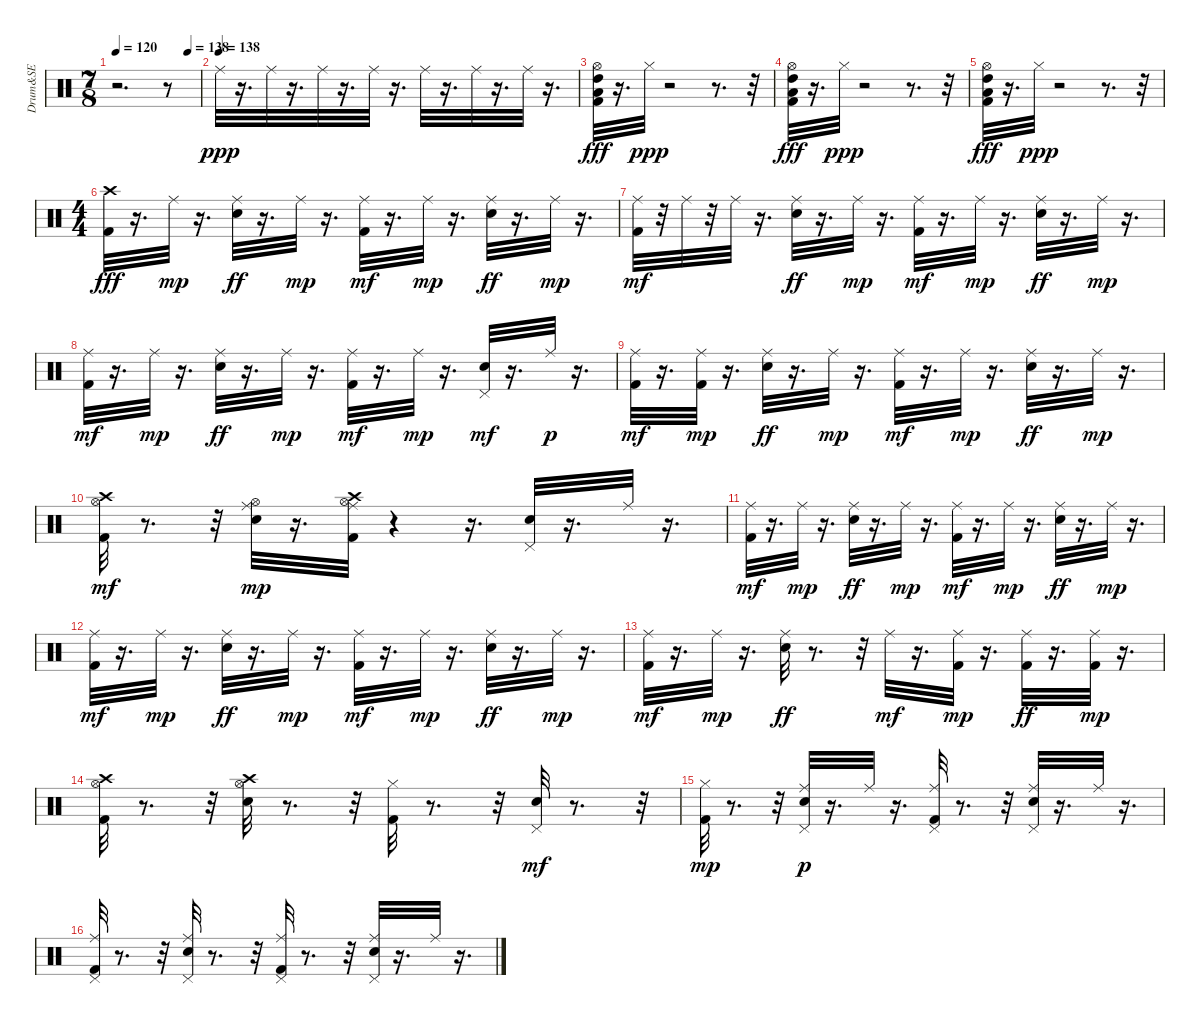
\track ("Drum&SE" "Drum&SE") {instrument percussion}
\staff {score}
\articulation defaults
\ts (7 8)
\tempo 120
\tempo (138 0.8571428571428571)
\tempo 120
\clef neutral
\ks c
r.2{d dy ppp} r.8 |
\tempo (138)
"Ride (middle)".32 r.16{d} "Ride (middle)".32 r.16{d} "Ride (middle)".32 r.16{d} "Ride (middle)".32 r.16{d} "Ride (middle)".32 r.16{d} "Ride (middle)".32 r.16{d} "Ride (middle)".32 r.16{d} |
("Kick (hit) 2" "Low Tom (hit)" "Hi-Hat (open)" "High Tom (hit)").32{dy fff} r.16{d} "Hi-Hat (closed)".32{dy ppp} r.2 r.8{d} r.32 |
("Kick (hit) 2" "Low Tom (hit)" "Hi-Hat (open)" "High Tom (hit)").32{dy fff} r.16{d} "Hi-Hat (closed)".32{dy ppp} r.2 r.8{d} r.32 |
("Kick (hit) 2" "Low Tom (hit)" "Hi-Hat (open)" "High Tom (hit)").32{dy fff} r.16{d} "Hi-Hat (closed)".32{dy ppp} r.2 r.8{d} r.32 |
\ts (4 4)
("Kick (hit) 2" "Crash high (hit)").32{dy fff} r.16{d} "Ride (middle)".32{dy mp} r.16{d} ("Snare (hit) 2" "Ride (middle)").32{dy ff} r.16{d} "Ride (middle)".32{dy mp} r.16{d} ("Kick (hit) 2" "Ride (middle)").32{dy mf} r.16{d} "Ride (middle)".32{dy mp} r.16{d} ("Snare (hit) 2" "Ride (middle)").32{dy ff} r.16{d} "Ride (middle)".32{dy mp} r.16{d} |
("Kick (hit) 2" "Ride (middle)").32{dy mf} r.32 "Ride (middle)".32 r.32 "Ride (middle)".32 r.16{d} ("Snare (hit) 2" "Ride (middle)").32{dy ff} r.16{d} "Ride (middle)".32{dy mp} r.16{d} ("Kick (hit) 2" "Ride (middle)").32{dy mf} r.16{d} "Ride (middle)".32{dy mp} r.16{d} ("Snare (hit) 2" "Ride (middle)").32{dy ff} r.16{d} "Ride (middle)".32{dy mp} r.16{d} |
("Kick (hit) 2" "Ride (middle)").32{dy mf} r.16{d} "Ride (middle)".32{dy mp} r.16{d} ("Snare (hit) 2" "Ride (middle)").32{dy ff} r.16{d} "Ride (middle)".32{dy mp} r.16{d} ("Kick (hit) 2" "Ride (middle)").32{dy mf} r.16{d} "Ride (middle)".32{dy mp} r.16{d} ("Snare (hit) 2" "Pedal Hi-Hat (hit)").32{dy mf} r.16{d} "Ride (middle)".32{dy p} r.16{d} |
("Kick (hit) 2" "Ride (middle)").32{dy mf} r.16{d} ("Kick (hit) 2" "Ride (middle)").32{dy mp} r.16{d} ("Snare (hit) 2" "Ride (middle)").32{dy ff} r.16{d} "Ride (middle)".32{dy mp} r.16{d} ("Kick (hit) 2" "Ride (middle)").32{dy mf} r.16{d} "Ride (middle)".32{dy mp} r.16{d} ("Snare (hit) 2" "Ride (middle)").32{dy ff} r.16{d} "Ride (middle)".32{dy mp} r.16{d} |
("Kick (hit) 2" "Hi-Hat (open)" "Crash high (hit)").32{dy mf} r.8{d} r.32 ("Snare (hit) 2" "Hi-Hat (open)" "Ride (middle)").32{dy mp} r.16{d} ("Kick (hit) 2" "Hi-Hat (open)" "Crash high (hit)" "Ride (middle)").32 r.4 r.16{d} ("Snare (hit) 2" "Pedal Hi-Hat (hit)").32 r.16{d} "Ride (middle)".32 r.16{d} |
("Kick (hit) 2" "Ride (middle)").32{dy mf} r.16{d} "Ride (middle)".32{dy mp} r.16{d} ("Snare (hit) 2" "Ride (middle)").32{dy ff} r.16{d} "Ride (middle)".32{dy mp} r.16{d} ("Kick (hit) 2" "Ride (middle)").32{dy mf} r.16{d} "Ride (middle)".32{dy mp} r.16{d} ("Snare (hit) 2" "Ride (middle)").32{dy ff} r.16{d} "Ride (middle)".32{dy mp} r.16{d} |
("Kick (hit) 2" "Ride (middle)").32{dy mf} r.16{d} "Ride (middle)".32{dy mp} r.16{d} ("Snare (hit) 2" "Ride (middle)").32{dy ff} r.16{d} "Ride (middle)".32{dy mp} r.16{d} ("Kick (hit) 2" "Ride (middle)").32{dy mf} r.16{d} "Ride (middle)".32{dy mp} r.16{d} ("Snare (hit) 2" "Ride (middle)").32{dy ff} r.16{d} "Ride (middle)".32{dy mp} r.16{d} |
("Kick (hit) 2" "Ride (middle)").32{dy mf} r.16{d} "Ride (middle)".32{dy mp} r.16{d} ("Snare (hit) 2" "Ride (middle)").32{dy ff} r.8{d} r.32 "Ride (middle)".32{dy mf} r.16{d} ("Kick (hit) 2" "Ride (middle)").32{dy mp} r.16{d} ("Kick (hit) 2" "Ride (middle)").32{dy ff} r.16{d} ("Kick (hit) 2" "Ride (middle)").32{dy mp} r.16{d} |
("Kick (hit) 2" "Hi-Hat (open)" "Crash high (hit)").32 r.8{d} r.32 ("Hi-Hat (open)" "Snare (hit) 2" "Crash high (hit)").32 r.8{d} r.32 ("Kick (hit) 2" "Hi-Hat (closed)").32 r.8{d} r.32 ("Snare (hit) 2" "Pedal Hi-Hat (hit)").32{dy mf} r.8{d} r.32 |
("Kick (hit) 2" "Hi-Hat (closed)").32{dy mp} r.8{d} r.32 ("Snare (hit) 2" "Pedal Hi-Hat (hit)" "Ride (middle)").32{dy p} r.16{d} "Ride (middle)".32 r.16{d} ("Kick (hit) 2" "Pedal Hi-Hat (hit)" "Ride (middle)").32 r.8{d} r.32 ("Snare (hit) 2" "Pedal Hi-Hat (hit)" "Ride (middle)").32 r.16{d} "Ride (middle)".32 r.16{d} |
("Kick (hit) 2" "Pedal Hi-Hat (hit)" "Ride (middle)").32 r.8{d} r.32 ("Snare (hit) 2" "Pedal Hi-Hat (hit)" "Ride (middle)").32 r.8{d} r.32 ("Kick (hit) 2" "Pedal Hi-Hat (hit)" "Ride (middle)").32 r.8{d} r.32 ("Snare (hit) 2" "Pedal Hi-Hat (hit)" "Ride (middle)").32 r.16{d} "Ride (middle)".32 r.16{d}
